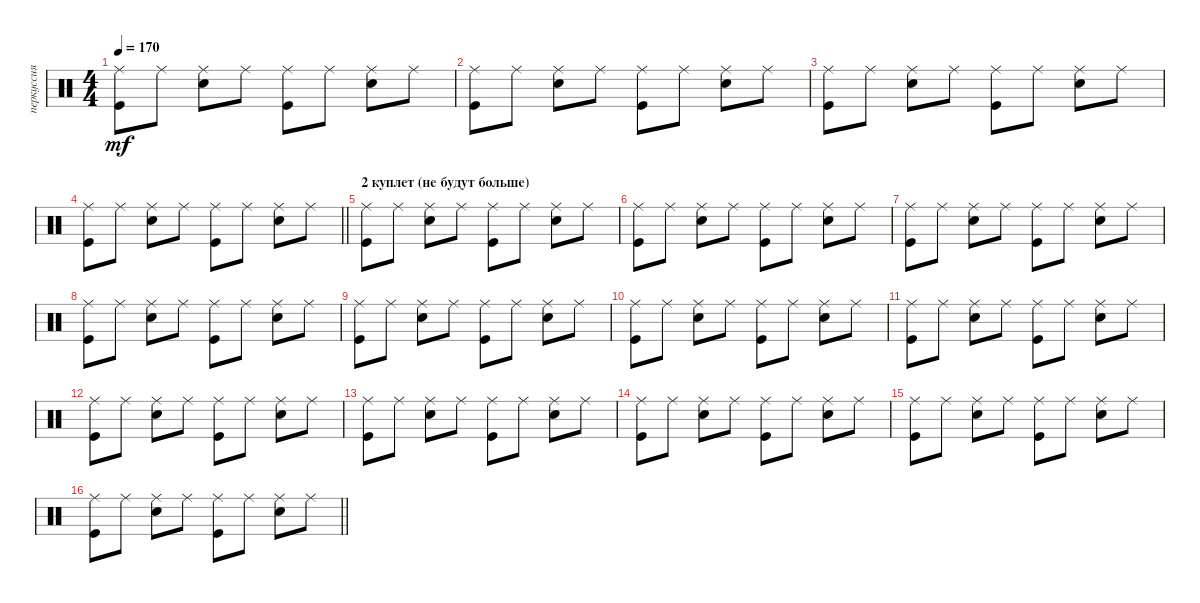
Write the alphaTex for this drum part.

\track ("перкуссия" "перкуссия") {instrument percussion}
\staff {score}
\articulation defaults
\ts (4 4)
\tempo 170
\clef neutral
\ks c
("Ride (middle)" "Kick (hit)").8{dy mf} "Ride (middle)".8 ("Ride (middle)" "Snare (hit) 2").8 "Ride (middle)".8 ("Ride (middle)" "Kick (hit)").8 "Ride (middle)".8 ("Ride (middle)" "Snare (hit) 2").8 "Ride (middle)".8 |
("Ride (middle)" "Kick (hit)").8 "Ride (middle)".8 ("Ride (middle)" "Snare (hit) 2").8 "Ride (middle)".8 ("Ride (middle)" "Kick (hit)").8 "Ride (middle)".8 ("Ride (middle)" "Snare (hit) 2").8 "Ride (middle)".8 |
("Ride (middle)" "Kick (hit)").8 "Ride (middle)".8 ("Ride (middle)" "Snare (hit) 2").8 "Ride (middle)".8 ("Ride (middle)" "Kick (hit)").8 "Ride (middle)".8 ("Ride (middle)" "Snare (hit) 2").8 "Ride (middle)".8 |
\barLineRight lightlight
("Ride (middle)" "Kick (hit)").8 "Ride (middle)".8 ("Ride (middle)" "Snare (hit) 2").8 "Ride (middle)".8 ("Ride (middle)" "Kick (hit)").8 "Ride (middle)".8 ("Ride (middle)" "Snare (hit) 2").8 "Ride (middle)".8 |
\section ("" "2 куплет (не будут больше)")
("Ride (middle)" "Kick (hit)").8 "Ride (middle)".8 ("Ride (middle)" "Snare (hit) 2").8 "Ride (middle)".8 ("Ride (middle)" "Kick (hit)").8 "Ride (middle)".8 ("Ride (middle)" "Snare (hit) 2").8 "Ride (middle)".8 |
("Ride (middle)" "Kick (hit)").8 "Ride (middle)".8 ("Ride (middle)" "Snare (hit) 2").8 "Ride (middle)".8 ("Ride (middle)" "Kick (hit)").8 "Ride (middle)".8 ("Ride (middle)" "Snare (hit) 2").8 "Ride (middle)".8 |
("Ride (middle)" "Kick (hit)").8 "Ride (middle)".8 ("Ride (middle)" "Snare (hit) 2").8 "Ride (middle)".8 ("Ride (middle)" "Kick (hit)").8 "Ride (middle)".8 ("Ride (middle)" "Snare (hit) 2").8 "Ride (middle)".8 |
("Ride (middle)" "Kick (hit)").8 "Ride (middle)".8 ("Ride (middle)" "Snare (hit) 2").8 "Ride (middle)".8 ("Ride (middle)" "Kick (hit)").8 "Ride (middle)".8 ("Ride (middle)" "Snare (hit) 2").8 "Ride (middle)".8 |
("Ride (middle)" "Kick (hit)").8 "Ride (middle)".8 ("Ride (middle)" "Snare (hit) 2").8 "Ride (middle)".8 ("Ride (middle)" "Kick (hit)").8 "Ride (middle)".8 ("Ride (middle)" "Snare (hit) 2").8 "Ride (middle)".8 |
("Ride (middle)" "Kick (hit)").8 "Ride (middle)".8 ("Ride (middle)" "Snare (hit) 2").8 "Ride (middle)".8 ("Ride (middle)" "Kick (hit)").8 "Ride (middle)".8 ("Ride (middle)" "Snare (hit) 2").8 "Ride (middle)".8 |
("Ride (middle)" "Kick (hit)").8 "Ride (middle)".8 ("Ride (middle)" "Snare (hit) 2").8 "Ride (middle)".8 ("Ride (middle)" "Kick (hit)").8 "Ride (middle)".8 ("Ride (middle)" "Snare (hit) 2").8 "Ride (middle)".8 |
("Ride (middle)" "Kick (hit)").8 "Ride (middle)".8 ("Ride (middle)" "Snare (hit) 2").8 "Ride (middle)".8 ("Ride (middle)" "Kick (hit)").8 "Ride (middle)".8 ("Ride (middle)" "Snare (hit) 2").8 "Ride (middle)".8 |
("Ride (middle)" "Kick (hit)").8 "Ride (middle)".8 ("Ride (middle)" "Snare (hit) 2").8 "Ride (middle)".8 ("Ride (middle)" "Kick (hit)").8 "Ride (middle)".8 ("Ride (middle)" "Snare (hit) 2").8 "Ride (middle)".8 |
("Ride (middle)" "Kick (hit)").8 "Ride (middle)".8 ("Ride (middle)" "Snare (hit) 2").8 "Ride (middle)".8 ("Ride (middle)" "Kick (hit)").8 "Ride (middle)".8 ("Ride (middle)" "Snare (hit) 2").8 "Ride (middle)".8 |
("Ride (middle)" "Kick (hit)").8 "Ride (middle)".8 ("Ride (middle)" "Snare (hit) 2").8 "Ride (middle)".8 ("Ride (middle)" "Kick (hit)").8 "Ride (middle)".8 ("Ride (middle)" "Snare (hit) 2").8 "Ride (middle)".8 |
\barLineRight lightlight
("Ride (middle)" "Kick (hit)").8 "Ride (middle)".8 ("Ride (middle)" "Snare (hit) 2").8 "Ride (middle)".8 ("Ride (middle)" "Kick (hit)").8 "Ride (middle)".8 ("Ride (middle)" "Snare (hit) 2").8 "Ride (middle)".8
